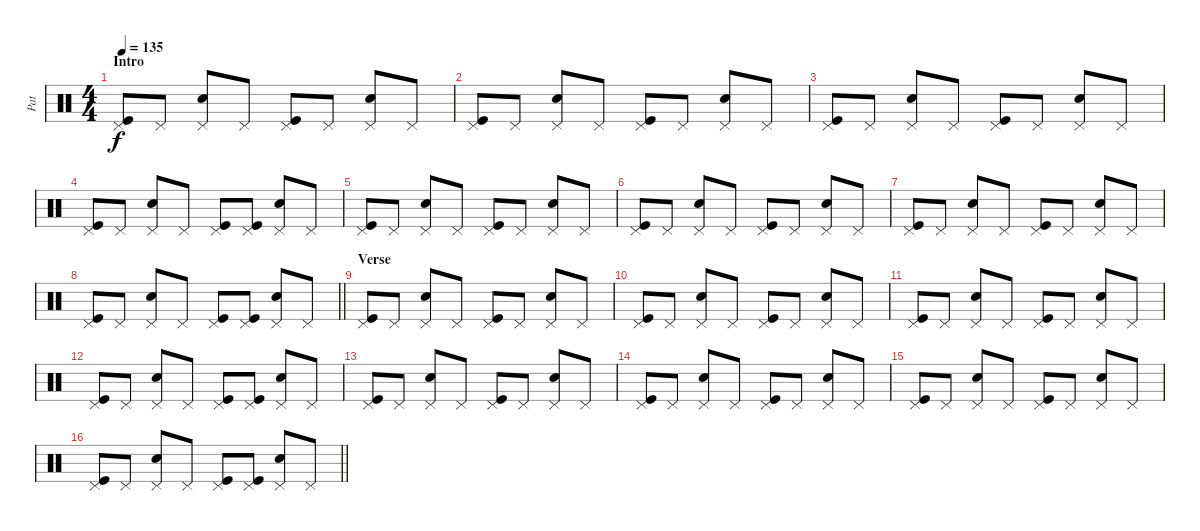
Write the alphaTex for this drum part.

\track ("Pat" "Pat") {instrument percussion}
\staff {score}
\articulation defaults
\ts (4 4)
\section ("" "Intro")
\tempo 135
\clef neutral
\ks c
("Pedal Hi-Hat (hit)" "Kick (hit)").8{dy f} "Pedal Hi-Hat (hit)".8 ("Pedal Hi-Hat (hit)" "Snare (hit) 2").8 "Pedal Hi-Hat (hit)".8 ("Pedal Hi-Hat (hit)" "Kick (hit)").8 "Pedal Hi-Hat (hit)".8 ("Pedal Hi-Hat (hit)" "Snare (hit) 2").8 "Pedal Hi-Hat (hit)".8 |
("Pedal Hi-Hat (hit)" "Kick (hit)").8 "Pedal Hi-Hat (hit)".8 ("Pedal Hi-Hat (hit)" "Snare (hit) 2").8 "Pedal Hi-Hat (hit)".8 ("Pedal Hi-Hat (hit)" "Kick (hit)").8 "Pedal Hi-Hat (hit)".8 ("Pedal Hi-Hat (hit)" "Snare (hit) 2").8 "Pedal Hi-Hat (hit)".8 |
("Pedal Hi-Hat (hit)" "Kick (hit)").8 "Pedal Hi-Hat (hit)".8 ("Pedal Hi-Hat (hit)" "Snare (hit) 2").8 "Pedal Hi-Hat (hit)".8 ("Pedal Hi-Hat (hit)" "Kick (hit)").8 "Pedal Hi-Hat (hit)".8 ("Pedal Hi-Hat (hit)" "Snare (hit) 2").8 "Pedal Hi-Hat (hit)".8 |
("Pedal Hi-Hat (hit)" "Kick (hit)").8 "Pedal Hi-Hat (hit)".8 ("Pedal Hi-Hat (hit)" "Snare (hit) 2").8 "Pedal Hi-Hat (hit)".8 ("Pedal Hi-Hat (hit)" "Kick (hit)").8 ("Pedal Hi-Hat (hit)" "Kick (hit)").8 ("Pedal Hi-Hat (hit)" "Snare (hit) 2").8 "Pedal Hi-Hat (hit)".8 |
("Pedal Hi-Hat (hit)" "Kick (hit)").8 "Pedal Hi-Hat (hit)".8 ("Pedal Hi-Hat (hit)" "Snare (hit) 2").8 "Pedal Hi-Hat (hit)".8 ("Pedal Hi-Hat (hit)" "Kick (hit)").8 "Pedal Hi-Hat (hit)".8 ("Pedal Hi-Hat (hit)" "Snare (hit) 2").8 "Pedal Hi-Hat (hit)".8 |
("Pedal Hi-Hat (hit)" "Kick (hit)").8 "Pedal Hi-Hat (hit)".8 ("Pedal Hi-Hat (hit)" "Snare (hit) 2").8 "Pedal Hi-Hat (hit)".8 ("Pedal Hi-Hat (hit)" "Kick (hit)").8 "Pedal Hi-Hat (hit)".8 ("Pedal Hi-Hat (hit)" "Snare (hit) 2").8 "Pedal Hi-Hat (hit)".8 |
("Pedal Hi-Hat (hit)" "Kick (hit)").8 "Pedal Hi-Hat (hit)".8 ("Pedal Hi-Hat (hit)" "Snare (hit) 2").8 "Pedal Hi-Hat (hit)".8 ("Pedal Hi-Hat (hit)" "Kick (hit)").8 "Pedal Hi-Hat (hit)".8 ("Pedal Hi-Hat (hit)" "Snare (hit) 2").8 "Pedal Hi-Hat (hit)".8 |
\barLineRight lightlight
("Pedal Hi-Hat (hit)" "Kick (hit)").8 "Pedal Hi-Hat (hit)".8 ("Pedal Hi-Hat (hit)" "Snare (hit) 2").8 "Pedal Hi-Hat (hit)".8 ("Pedal Hi-Hat (hit)" "Kick (hit)").8 ("Pedal Hi-Hat (hit)" "Kick (hit)").8 ("Pedal Hi-Hat (hit)" "Snare (hit) 2").8 "Pedal Hi-Hat (hit)".8 |
\section ("" "Verse")
("Pedal Hi-Hat (hit)" "Kick (hit)").8 "Pedal Hi-Hat (hit)".8 ("Pedal Hi-Hat (hit)" "Snare (hit) 2").8 "Pedal Hi-Hat (hit)".8 ("Pedal Hi-Hat (hit)" "Kick (hit)").8 "Pedal Hi-Hat (hit)".8 ("Pedal Hi-Hat (hit)" "Snare (hit) 2").8 "Pedal Hi-Hat (hit)".8 |
("Pedal Hi-Hat (hit)" "Kick (hit)").8 "Pedal Hi-Hat (hit)".8 ("Pedal Hi-Hat (hit)" "Snare (hit) 2").8 "Pedal Hi-Hat (hit)".8 ("Pedal Hi-Hat (hit)" "Kick (hit)").8 "Pedal Hi-Hat (hit)".8 ("Pedal Hi-Hat (hit)" "Snare (hit) 2").8 "Pedal Hi-Hat (hit)".8 |
("Pedal Hi-Hat (hit)" "Kick (hit)").8 "Pedal Hi-Hat (hit)".8 ("Pedal Hi-Hat (hit)" "Snare (hit) 2").8 "Pedal Hi-Hat (hit)".8 ("Pedal Hi-Hat (hit)" "Kick (hit)").8 "Pedal Hi-Hat (hit)".8 ("Pedal Hi-Hat (hit)" "Snare (hit) 2").8 "Pedal Hi-Hat (hit)".8 |
("Pedal Hi-Hat (hit)" "Kick (hit)").8 "Pedal Hi-Hat (hit)".8 ("Pedal Hi-Hat (hit)" "Snare (hit) 2").8 "Pedal Hi-Hat (hit)".8 ("Pedal Hi-Hat (hit)" "Kick (hit)").8 ("Pedal Hi-Hat (hit)" "Kick (hit)").8 ("Pedal Hi-Hat (hit)" "Snare (hit) 2").8 "Pedal Hi-Hat (hit)".8 |
("Pedal Hi-Hat (hit)" "Kick (hit)").8 "Pedal Hi-Hat (hit)".8 ("Pedal Hi-Hat (hit)" "Snare (hit) 2").8 "Pedal Hi-Hat (hit)".8 ("Pedal Hi-Hat (hit)" "Kick (hit)").8 "Pedal Hi-Hat (hit)".8 ("Pedal Hi-Hat (hit)" "Snare (hit) 2").8 "Pedal Hi-Hat (hit)".8 |
("Pedal Hi-Hat (hit)" "Kick (hit)").8 "Pedal Hi-Hat (hit)".8 ("Pedal Hi-Hat (hit)" "Snare (hit) 2").8 "Pedal Hi-Hat (hit)".8 ("Pedal Hi-Hat (hit)" "Kick (hit)").8 "Pedal Hi-Hat (hit)".8 ("Pedal Hi-Hat (hit)" "Snare (hit) 2").8 "Pedal Hi-Hat (hit)".8 |
("Pedal Hi-Hat (hit)" "Kick (hit)").8 "Pedal Hi-Hat (hit)".8 ("Pedal Hi-Hat (hit)" "Snare (hit) 2").8 "Pedal Hi-Hat (hit)".8 ("Pedal Hi-Hat (hit)" "Kick (hit)").8 "Pedal Hi-Hat (hit)".8 ("Pedal Hi-Hat (hit)" "Snare (hit) 2").8 "Pedal Hi-Hat (hit)".8 |
\barLineRight lightlight
("Pedal Hi-Hat (hit)" "Kick (hit)").8 "Pedal Hi-Hat (hit)".8 ("Pedal Hi-Hat (hit)" "Snare (hit) 2").8 "Pedal Hi-Hat (hit)".8 ("Pedal Hi-Hat (hit)" "Kick (hit)").8 ("Pedal Hi-Hat (hit)" "Kick (hit)").8 ("Pedal Hi-Hat (hit)" "Snare (hit) 2").8 "Pedal Hi-Hat (hit)".8
